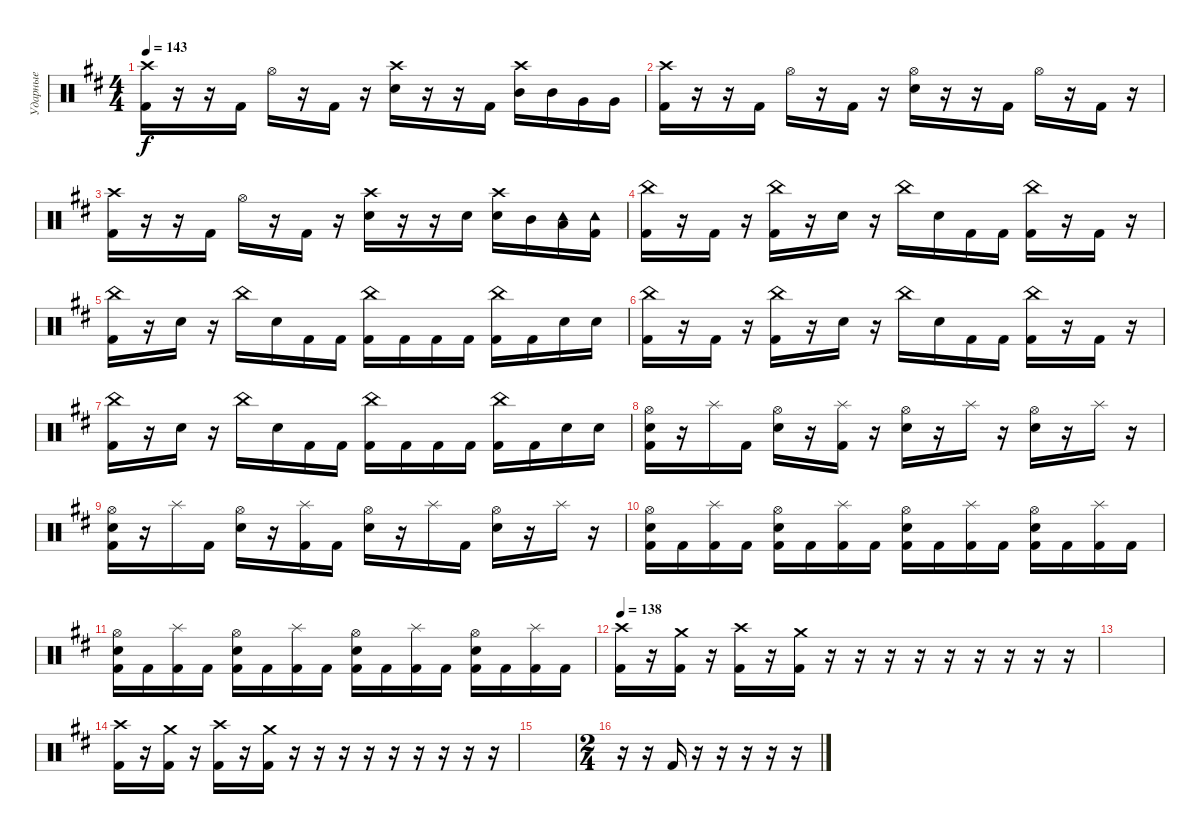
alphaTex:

\track ("Ударные" "Ударные") {instrument percussion}
\staff {score}
\articulation defaults
\ts (4 4)
\tempo 143
\clef neutral
\ks bminor
("Kick (hit) 2" "Crash high (hit)").16{dy f} r.16 r.16 "Kick (hit) 2".16 "Hi-Hat (open)".16 r.16 "Kick (hit) 2".16 r.16 ("Crash high (hit)" "Electric Snare (hit)").16 r.16 r.16 "Kick (hit) 2".16 ("Mid Tom (hit)" "Crash high (hit)").16 "Mid Tom (hit)".16 "Very Low Tom (hit)".16 "Very Low Tom (hit)".16 |
("Kick (hit) 2" "Crash high (hit)").16 r.16 r.16 "Kick (hit) 2".16 "Hi-Hat (open)".16 r.16 "Kick (hit) 2".16 r.16 ("Hi-Hat (open)" "Electric Snare (hit)").16 r.16 r.16 "Kick (hit) 2".16 "Hi-Hat (open)".16 r.16 "Kick (hit) 2".16 r.16 |
("Kick (hit) 2" "Crash high (hit)").16 r.16 r.16 "Kick (hit) 2".16 "Hi-Hat (open)".16 r.16 "Kick (hit) 2".16 r.16 ("Crash high (hit)" "Electric Snare (hit)").16 r.16 r.16 "Electric Snare (hit)".16 ("Electric Snare (hit)" "Crash high (hit)").16 "Mid Tom (hit)".16 ("Low Tom (hit)" "Tambourine (hit)").16 ("Kick (hit) 2" "Tambourine (hit)").16 |
("China (hit)" "Kick (hit) 2").16 r.16 "Kick (hit) 2".16 r.16 ("China (hit)" "Kick (hit) 2").16 r.16 "Electric Snare (hit)".16 r.16 "China (hit)".16 "Electric Snare (hit)".16 "Kick (hit) 2".16 "Kick (hit) 2".16 ("China (hit)" "Kick (hit) 2").16 r.16 "Kick (hit) 2".16 r.16 |
("Kick (hit) 2" "China (hit)").16 r.16 "Electric Snare (hit)".16 r.16 "China (hit)".16 "Electric Snare (hit)".16 "Kick (hit) 2".16 "Kick (hit) 2".16 ("Kick (hit) 2" "China (hit)").16 "Kick (hit) 2".16 "Kick (hit) 2".16 "Kick (hit) 2".16 ("Kick (hit) 2" "China (hit)").16 "Kick (hit) 2".16 "Electric Snare (hit)".16 "Electric Snare (hit)".16 |
("China (hit)" "Kick (hit) 2").16 r.16 "Kick (hit) 2".16 r.16 ("China (hit)" "Kick (hit) 2").16 r.16 "Electric Snare (hit)".16 r.16 "China (hit)".16 "Electric Snare (hit)".16 "Kick (hit) 2".16 "Kick (hit) 2".16 ("China (hit)" "Kick (hit) 2").16 r.16 "Kick (hit) 2".16 r.16 |
("Kick (hit) 2" "China (hit)").16 r.16 "Electric Snare (hit)".16 r.16 "China (hit)".16 "Electric Snare (hit)".16 "Kick (hit) 2".16 "Kick (hit) 2".16 ("Kick (hit) 2" "China (hit)").16 "Kick (hit) 2".16 "Kick (hit) 2".16 "Kick (hit) 2".16 ("Kick (hit) 2" "China (hit)").16 "Kick (hit) 2".16 "Electric Snare (hit)".16 "Electric Snare (hit)".16 |
("Hi-Hat (open)" "Kick (hit) 2" "Electric Snare (hit)").16 r.16 "Splash (hit)".16 "Kick (hit) 2".16 ("Hi-Hat (open)" "Electric Snare (hit)").16 r.16 ("Splash (hit)" "Kick (hit) 2").16 r.16 ("Hi-Hat (open)" "Electric Snare (hit)").16 r.16 "Splash (hit)".16 r.16 ("Hi-Hat (open)" "Electric Snare (hit)").16 r.16 "Splash (hit)".16 r.16 |
("Hi-Hat (open)" "Kick (hit) 2" "Electric Snare (hit)").16 r.16 "Splash (hit)".16 "Kick (hit) 2".16 ("Hi-Hat (open)" "Electric Snare (hit)").16 r.16 ("Splash (hit)" "Kick (hit) 2").16 "Kick (hit) 2".16 ("Hi-Hat (open)" "Electric Snare (hit)").16 r.16 "Splash (hit)".16 "Kick (hit) 2".16 ("Hi-Hat (open)" "Electric Snare (hit)").16 r.16 "Splash (hit)".16 r.16 |
("Hi-Hat (open)" "Kick (hit) 2" "Electric Snare (hit)").16 "Kick (hit) 2".16 ("Splash (hit)" "Kick (hit) 2").16 "Kick (hit) 2".16 ("Hi-Hat (open)" "Electric Snare (hit)" "Kick (hit) 2").16 "Kick (hit) 2".16 ("Splash (hit)" "Kick (hit) 2").16 "Kick (hit) 2".16 ("Hi-Hat (open)" "Electric Snare (hit)" "Kick (hit) 2").16 "Kick (hit) 2".16 ("Splash (hit)" "Kick (hit) 2").16 "Kick (hit) 2".16 ("Hi-Hat (open)" "Electric Snare (hit)" "Kick (hit) 2").16 "Kick (hit) 2".16 ("Splash (hit)" "Kick (hit) 2").16 "Kick (hit) 2".16 |
("Hi-Hat (open)" "Kick (hit) 2" "Electric Snare (hit)").16 "Kick (hit) 2".16 ("Splash (hit)" "Kick (hit) 2").16 "Kick (hit) 2".16 ("Hi-Hat (open)" "Electric Snare (hit)" "Kick (hit) 2").16 "Kick (hit) 2".16 ("Splash (hit)" "Kick (hit) 2").16 "Kick (hit) 2".16 ("Hi-Hat (open)" "Electric Snare (hit)" "Kick (hit) 2").16 "Kick (hit) 2".16 ("Splash (hit)" "Kick (hit) 2").16 "Kick (hit) 2".16 ("Hi-Hat (open)" "Electric Snare (hit)" "Kick (hit) 2").16 "Kick (hit) 2".16 ("Splash (hit)" "Kick (hit) 2").16 "Kick (hit) 2".16 |
\tempo 138
("Kick (hit) 2" "Crash high (hit)").16 r.16 ("Kick (hit) 2" "Crash medium (hit)").16 r.16 ("Kick (hit) 2" "Crash high (hit)").16 r.16 ("Kick (hit) 2" "Crash medium (hit)").16 r.16 r.16 r.16 r.16 r.16 r.16 r.16 r.16 r.16 |
|
("Kick (hit) 2" "Crash high (hit)").16 r.16 ("Kick (hit) 2" "Crash medium (hit)").16 r.16 ("Kick (hit) 2" "Crash high (hit)").16 r.16 ("Kick (hit) 2" "Crash medium (hit)").16 r.16 r.16 r.16 r.16 r.16 r.16 r.16 r.16 r.16 |
|
\ts (2 4)
r.16 r.16 "Kick (hit) 2".16 r.16 r.16 r.16 r.16 r.16
